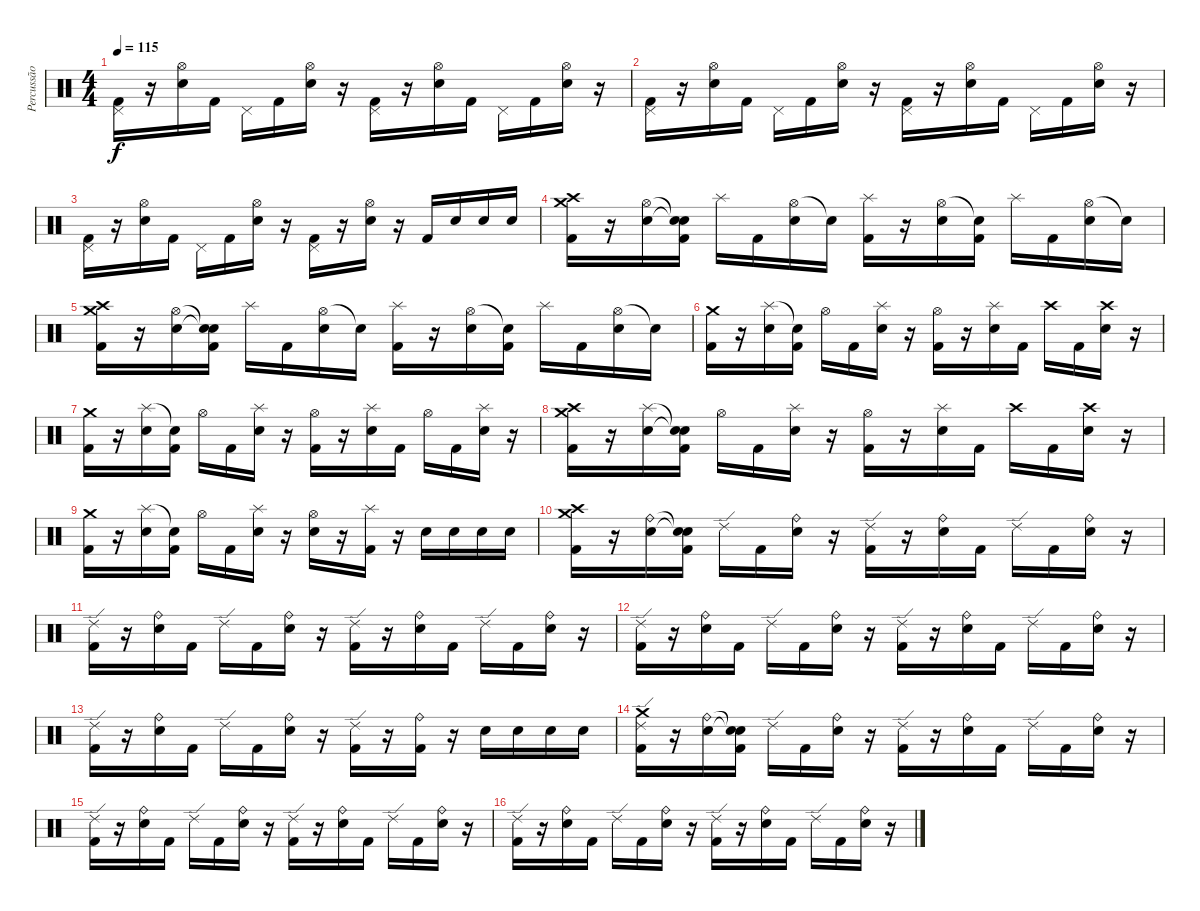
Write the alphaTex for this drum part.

\track ("Percussão" "Percussão") {instrument percussion}
\staff {score}
\articulation defaults
\ts (4 4)
\tempo 115
\clef neutral
\ks c
("Pedal Hi-Hat (hit)" "Kick (hit) 2").16{dy f} r.16 ("Hi-Hat (open)" "Electric Snare (hit)").16 "Kick (hit) 2".16 "Pedal Hi-Hat (hit)".16 "Kick (hit) 2".16 ("Hi-Hat (open)" "Electric Snare (hit)").16 r.16 ("Pedal Hi-Hat (hit)" "Kick (hit) 2").16 r.16 ("Hi-Hat (open)" "Electric Snare (hit)").16 "Kick (hit) 2".16 "Pedal Hi-Hat (hit)".16 "Kick (hit) 2".16 ("Hi-Hat (open)" "Electric Snare (hit)").16 r.16 |
("Pedal Hi-Hat (hit)" "Kick (hit) 2").16 r.16 ("Hi-Hat (open)" "Electric Snare (hit)").16 "Kick (hit) 2".16 "Pedal Hi-Hat (hit)".16 "Kick (hit) 2".16 ("Hi-Hat (open)" "Electric Snare (hit)").16 r.16 ("Pedal Hi-Hat (hit)" "Kick (hit) 2").16 r.16 ("Hi-Hat (open)" "Electric Snare (hit)").16 "Kick (hit) 2".16 "Pedal Hi-Hat (hit)".16 "Kick (hit) 2".16 ("Hi-Hat (open)" "Electric Snare (hit)").16 r.16 |
("Pedal Hi-Hat (hit)" "Kick (hit) 2").16 r.16 ("Hi-Hat (open)" "Electric Snare (hit)").16 "Kick (hit) 2".16 "Pedal Hi-Hat (hit)".16 "Kick (hit) 2".16 ("Hi-Hat (open)" "Electric Snare (hit)").16 r.16 ("Pedal Hi-Hat (hit)" "Kick (hit) 2").16 r.16 ("Hi-Hat (open)" "Electric Snare (hit)").16 r.16 "Kick (hit) 2".16 "Electric Snare (hit)".16 "Electric Snare (hit)".16 "Electric Snare (hit)".16 |
("Crash high (hit)" "Crash medium (hit)" "Kick (hit) 2").16 r.16 ("Hi-Hat (open)" "Electric Snare (hit)").16 ("Snare (hit)"{t} "Snare (hit)"{t} "Kick (hit) 2").16 "Splash (hit)".16 "Kick (hit) 2".16 ("Hi-Hat (open)" "Electric Snare (hit)").16 "Snare (hit)"{t}.16 ("Splash (hit)" "Kick (hit) 2").16 r.16 ("Hi-Hat (open)" "Electric Snare (hit)").16 ("Snare (hit)"{t} "Kick (hit) 2").16 "Splash (hit)".16 "Kick (hit) 2".16 ("Hi-Hat (open)" "Electric Snare (hit)").16 "Snare (hit)"{t}.16 |
("Crash high (hit)" "Crash medium (hit)" "Kick (hit) 2").16 r.16 ("Hi-Hat (open)" "Electric Snare (hit)").16 ("Snare (hit)"{t} "Snare (hit)"{t} "Kick (hit) 2").16 "Splash (hit)".16 "Kick (hit) 2".16 ("Hi-Hat (open)" "Electric Snare (hit)").16 "Snare (hit)"{t}.16 ("Splash (hit)" "Kick (hit) 2").16 r.16 ("Hi-Hat (open)" "Electric Snare (hit)").16 ("Snare (hit)"{t} "Kick (hit) 2").16 "Splash (hit)".16 "Kick (hit) 2".16 ("Hi-Hat (open)" "Electric Snare (hit)").16 "Snare (hit)"{t}.16 |
("Crash medium (hit)" "Kick (hit) 2").16 r.16 ("Splash (hit)" "Electric Snare (hit)").16 ("Snare (hit)"{t} "Kick (hit) 2").16 "Hi-Hat (open)".16 "Kick (hit) 2".16 ("Splash (hit)" "Electric Snare (hit)").16 r.16 ("Hi-Hat (open)" "Kick (hit) 2").16 r.16 ("Splash (hit)" "Electric Snare (hit)").16 "Kick (hit) 2".16 "Crash high (hit)".16 "Kick (hit) 2".16 ("Crash high (hit)" "Electric Snare (hit)").16 r.16 |
("Crash medium (hit)" "Kick (hit) 2").16 r.16 ("Splash (hit)" "Electric Snare (hit)").16 ("Snare (hit)"{t} "Kick (hit) 2").16 "Hi-Hat (open)".16 "Kick (hit) 2".16 ("Splash (hit)" "Electric Snare (hit)").16 r.16 ("Hi-Hat (open)" "Kick (hit) 2").16 r.16 ("Splash (hit)" "Electric Snare (hit)").16 "Kick (hit) 2".16 "Hi-Hat (open)".16 "Kick (hit) 2".16 ("Splash (hit)" "Electric Snare (hit)").16 r.16 |
("Crash medium (hit)" "Crash high (hit)" "Kick (hit) 2").16 r.16 ("Splash (hit)" "Electric Snare (hit)").16 ("Snare (hit)"{t} "Snare (hit)"{t} "Kick (hit) 2").16 "Hi-Hat (open)".16 "Kick (hit) 2".16 ("Splash (hit)" "Electric Snare (hit)").16 r.16 ("Hi-Hat (open)" "Kick (hit) 2").16 r.16 ("Splash (hit)" "Electric Snare (hit)").16 "Kick (hit) 2".16 "Crash high (hit)".16 "Kick (hit) 2".16 ("Crash high (hit)" "Electric Snare (hit)").16 r.16 |
("Crash medium (hit)" "Kick (hit) 2").16 r.16 ("Splash (hit)" "Electric Snare (hit)").16 ("Snare (hit)"{t} "Kick (hit) 2").16 "Hi-Hat (open)".16 "Kick (hit) 2".16 ("Splash (hit)" "Electric Snare (hit)").16 r.16 ("Hi-Hat (open)" "Electric Snare (hit)").16 r.16 ("Splash (hit)" "Kick (hit) 2").16 r.16 "Electric Snare (hit)".16 "Electric Snare (hit)".16 "Electric Snare (hit)".16 "Electric Snare (hit)".16 |
("Crash high (hit)" "Crash medium (hit)" "Kick (hit) 2").16 r.16 ("Ride (bell)" "Electric Snare (hit)").16 ("Snare (hit)"{t} "Snare (hit)"{t} "Kick (hit) 2").16 "Ride (edge) 2".16 "Kick (hit) 2".16 ("Ride (bell)" "Electric Snare (hit)").16 r.16 ("Ride (edge) 2" "Kick (hit) 2").16 r.16 ("Ride (bell)" "Electric Snare (hit)").16 "Kick (hit) 2".16 "Ride (edge) 2".16 "Kick (hit) 2".16 ("Ride (bell)" "Electric Snare (hit)").16 r.16 |
("Ride (edge) 2" "Kick (hit) 2").16 r.16 ("Ride (bell)" "Electric Snare (hit)").16 "Kick (hit) 2".16 "Ride (edge) 2".16 "Kick (hit) 2".16 ("Ride (bell)" "Electric Snare (hit)").16 r.16 ("Ride (edge) 2" "Kick (hit) 2").16 r.16 ("Ride (bell)" "Electric Snare (hit)").16 "Kick (hit) 2".16 "Ride (edge) 2".16 "Kick (hit) 2".16 ("Ride (bell)" "Electric Snare (hit)").16 r.16 |
("Ride (edge) 2" "Kick (hit) 2").16 r.16 ("Ride (bell)" "Electric Snare (hit)").16 "Kick (hit) 2".16 "Ride (edge) 2".16 "Kick (hit) 2".16 ("Ride (bell)" "Electric Snare (hit)").16 r.16 ("Ride (edge) 2" "Kick (hit) 2").16 r.16 ("Ride (bell)" "Electric Snare (hit)").16 "Kick (hit) 2".16 "Ride (edge) 2".16 "Kick (hit) 2".16 ("Ride (bell)" "Electric Snare (hit)").16 r.16 |
("Ride (edge) 2" "Kick (hit) 2").16 r.16 ("Ride (bell)" "Electric Snare (hit)").16 "Kick (hit) 2".16 "Ride (edge) 2".16 "Kick (hit) 2".16 ("Ride (bell)" "Electric Snare (hit)").16 r.16 ("Ride (edge) 2" "Kick (hit) 2").16 r.16 ("Ride (bell)" "Kick (hit) 2").16 r.16 "Electric Snare (hit)".16 "Electric Snare (hit)".16 "Electric Snare (hit)".16 "Electric Snare (hit)".16 |
("Crash medium (hit)" "Ride (edge) 2" "Kick (hit) 2").16 r.16 ("Ride (bell)" "Electric Snare (hit)").16 ("Snare (hit)"{t} "Snare (hit)"{t} "Kick (hit) 2").16 "Ride (edge) 2".16 "Kick (hit) 2".16 ("Ride (bell)" "Electric Snare (hit)").16 r.16 ("Ride (edge) 2" "Kick (hit) 2").16 r.16 ("Ride (bell)" "Electric Snare (hit)").16 "Kick (hit) 2".16 "Ride (edge) 2".16 "Kick (hit) 2".16 ("Ride (bell)" "Electric Snare (hit)").16 r.16 |
("Ride (edge) 2" "Kick (hit) 2").16 r.16 ("Ride (bell)" "Electric Snare (hit)").16 "Kick (hit) 2".16 "Ride (edge) 2".16 "Kick (hit) 2".16 ("Ride (bell)" "Electric Snare (hit)").16 r.16 ("Ride (edge) 2" "Kick (hit) 2").16 r.16 ("Ride (bell)" "Electric Snare (hit)").16 "Kick (hit) 2".16 "Ride (edge) 2".16 "Kick (hit) 2".16 ("Ride (bell)" "Electric Snare (hit)").16 r.16 |
("Ride (edge) 2" "Kick (hit) 2").16 r.16 ("Ride (bell)" "Electric Snare (hit)").16 "Kick (hit) 2".16 "Ride (edge) 2".16 "Kick (hit) 2".16 ("Ride (bell)" "Electric Snare (hit)").16 r.16 ("Ride (edge) 2" "Kick (hit) 2").16 r.16 ("Ride (bell)" "Electric Snare (hit)").16 "Kick (hit) 2".16 "Ride (edge) 2".16 "Kick (hit) 2".16 ("Ride (bell)" "Electric Snare (hit)").16 r.16
